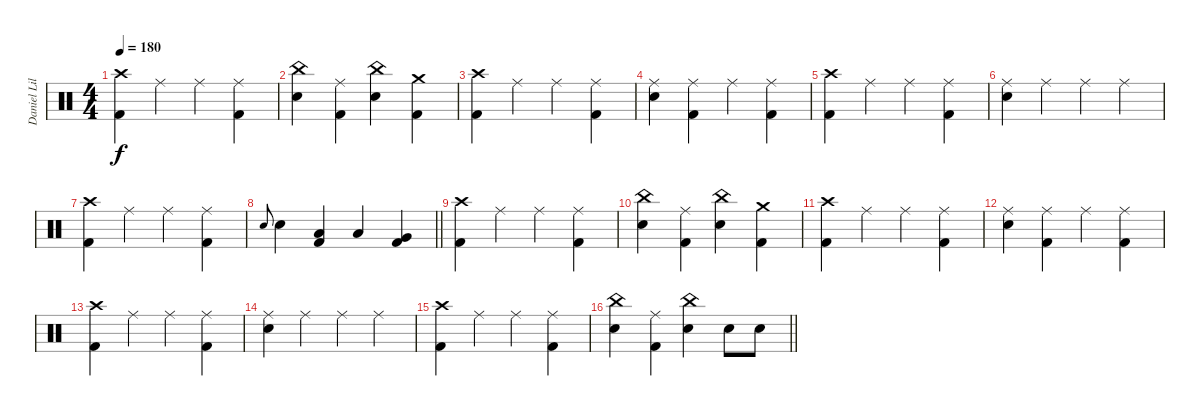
\track ("Daniel Liljekvist" "Daniel Lil") {instrument percussion}
\staff {score}
\articulation defaults
\ts (4 4)
\section ("" "")
\tempo 180
\clef neutral
\ks c
("Crash high (hit)" "Kick (hit) 2").4{dy f} "Ride (middle)".4 "Ride (middle)".4 ("Ride (middle)" "Kick (hit) 2").4 |
("China (hit)" "Electric Snare (hit)").4 ("Ride (middle)" "Kick (hit) 2").4 ("China (hit)" "Electric Snare (hit)").4 ("Crash medium (hit)" "Kick (hit) 2").4 |
("Crash high (hit)" "Kick (hit) 2").4 "Ride (middle)".4 "Ride (middle)".4 ("Ride (middle)" "Kick (hit) 2").4 |
("Ride (middle)" "Electric Snare (hit)").4 ("Ride (middle)" "Kick (hit) 2").4 "Ride (middle)".4 ("Ride (middle)" "Kick (hit) 2").4 |
("Crash high (hit)" "Kick (hit) 2").4 "Ride (middle)".4 "Ride (middle)".4 ("Ride (middle)" "Kick (hit) 2").4 |
("Ride (middle)" "Electric Snare (hit)").4 "Ride (middle)".4 "Ride (middle)".4 "Ride (middle)".4 |
("Crash high (hit)" "Kick (hit) 2").4 "Ride (middle)".4 "Ride (middle)".4 ("Ride (middle)" "Kick (hit) 2").4 |
\barLineRight lightlight "Electric Snare (hit)".8{gr onbeat} "Electric Snare (hit)".4
("Low Tom (hit)" "Kick (hit) 2").4 "Low Tom (hit)".4 ("Very Low Tom (hit)" "Kick (hit) 2").4 |
("Crash high (hit)" "Kick (hit) 2").4 "Ride (middle)".4 "Ride (middle)".4 ("Ride (middle)" "Kick (hit) 2").4 |
("China (hit)" "Electric Snare (hit)").4 ("Ride (middle)" "Kick (hit) 2").4 ("China (hit)" "Electric Snare (hit)").4 ("Crash medium (hit)" "Kick (hit) 2").4 |
("Crash high (hit)" "Kick (hit) 2").4 "Ride (middle)".4 "Ride (middle)".4 ("Ride (middle)" "Kick (hit) 2").4 |
("Ride (middle)" "Electric Snare (hit)").4 ("Ride (middle)" "Kick (hit) 2").4 "Ride (middle)".4 ("Ride (middle)" "Kick (hit) 2").4 |
("Crash high (hit)" "Kick (hit) 2").4 "Ride (middle)".4 "Ride (middle)".4 ("Ride (middle)" "Kick (hit) 2").4 |
("Ride (middle)" "Electric Snare (hit)").4 "Ride (middle)".4 "Ride (middle)".4 "Ride (middle)".4 |
("Crash high (hit)" "Kick (hit) 2").4 "Ride (middle)".4 "Ride (middle)".4 ("Ride (middle)" "Kick (hit) 2").4 |
\barLineRight lightlight
("China (hit)" "Electric Snare (hit)").4 ("Ride (middle)" "Kick (hit) 2").4 ("China (hit)" "Electric Snare (hit)").4 "Electric Snare (hit)".8 "Electric Snare (hit)".8
